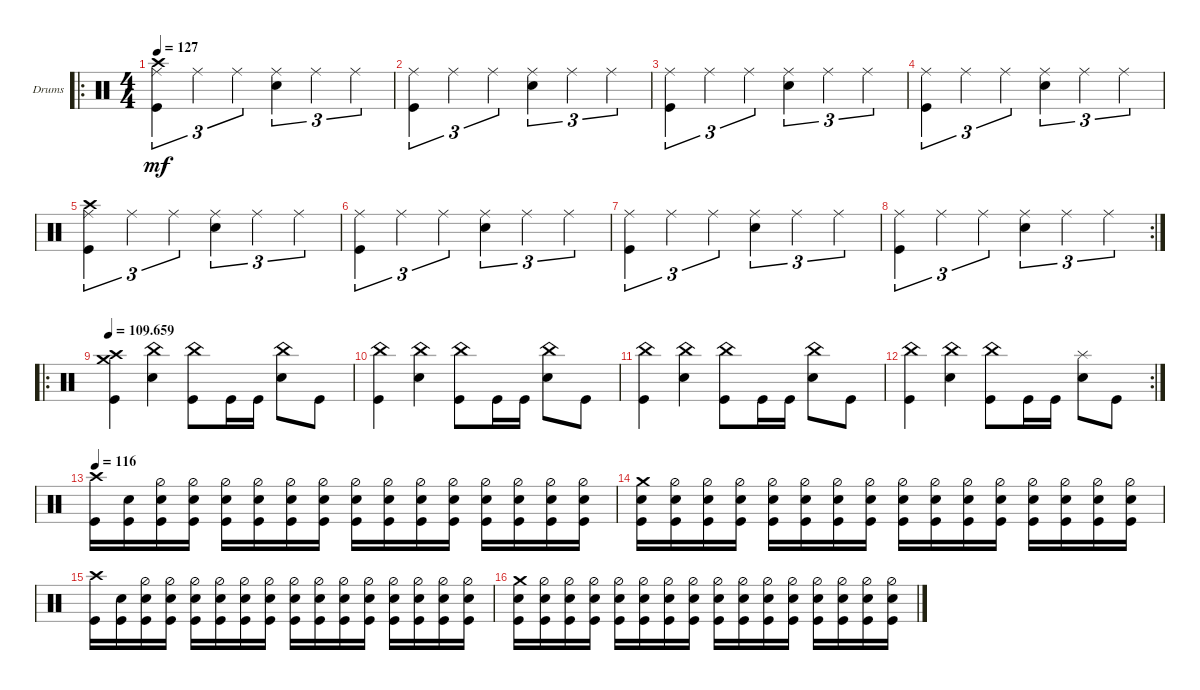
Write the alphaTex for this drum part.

\defaultSystemsLayout 4
\bracketExtendMode groupsimilarinstruments
\firstSystemTrackNameOrientation horizontal
\otherSystemsTrackNameOrientation horizontal
\track ("Incubus" "Drums") {instrument percussion}
\staff {score}
\articulation defaults
\ro
\ts (4 4)
\tempo 127
\clef neutral
\scale
0.408602
\ks c
("Kick (hit)" "Ride (middle)" "Crash high (hit)").4{tu (3 2) dy mf} "Ride (middle)".4{tu (3 2)} "Ride (middle)".4{tu (3 2)} ("Ride (middle)" "Snare (hit) 2").4{tu (3 2)} "Ride (middle)".4{tu (3 2)} "Ride (middle)".4{tu (3 2)} |
\scale
0.322034 ("Ride (middle)" "Kick (hit)").4{tu (3 2)} "Ride (middle)".4{tu (3 2)} "Ride (middle)".4{tu (3 2)} ("Ride (middle)" "Snare (hit) 2").4{tu (3 2)} "Ride (middle)".4{tu (3 2)} "Ride (middle)".4{tu (3 2)} |
\scale
0.322034 ("Kick (hit)" "Ride (middle)").4{tu (3 2)} "Ride (middle)".4{tu (3 2)} "Ride (middle)".4{tu (3 2)} ("Ride (middle)" "Snare (hit) 2").4{tu (3 2)} "Ride (middle)".4{tu (3 2)} "Ride (middle)".4{tu (3 2)} |
\scale
0.355932 ("Ride (middle)" "Kick (hit)").4{tu (3 2)} "Ride (middle)".4{tu (3 2)} "Ride (middle)".4{tu (3 2)} ("Ride (middle)" "Snare (hit) 2").4{tu (3 2)} "Ride (middle)".4{tu (3 2)} "Ride (middle)".4{tu (3 2)} |
("Kick (hit)" "Ride (middle)" "Crash high (hit)").4{tu (3 2)} "Ride (middle)".4{tu (3 2)} "Ride (middle)".4{tu (3 2)} ("Ride (middle)" "Snare (hit) 2").4{tu (3 2)} "Ride (middle)".4{tu (3 2)} "Ride (middle)".4{tu (3 2)} |
("Ride (middle)" "Kick (hit)").4{tu (3 2)} "Ride (middle)".4{tu (3 2)} "Ride (middle)".4{tu (3 2)} ("Ride (middle)" "Snare (hit) 2").4{tu (3 2)} "Ride (middle)".4{tu (3 2)} "Ride (middle)".4{tu (3 2)} |
("Kick (hit)" "Ride (middle)").4{tu (3 2)} "Ride (middle)".4{tu (3 2)} "Ride (middle)".4{tu (3 2)} ("Ride (middle)" "Snare (hit) 2").4{tu (3 2)} "Ride (middle)".4{tu (3 2)} "Ride (middle)".4{tu (3 2)} |
\rc 2
("Ride (middle)" "Kick (hit)").4{tu (3 2)} "Ride (middle)".4{tu (3 2)} "Ride (middle)".4{tu (3 2)} ("Ride (middle)" "Snare (hit) 2").4{tu (3 2)} "Ride (middle)".4{tu (3 2)} "Ride (middle)".4{tu (3 2)} |
\ro
\tempo
109.659
\scale
0.377049 ("Kick (hit)" "Crash medium (hit)" "Crash high (hit)").4 ("China (hit)" "Snare (hit) 2").4 ("China (hit)" "Kick (hit)").8 "Kick (hit)".16 "Kick (hit)".16 ("Snare (hit) 2" "China (hit)").8 "Kick (hit)".8 |
\scale
0.311475 ("Kick (hit)" "China (hit)").4 ("China (hit)" "Snare (hit) 2").4 ("China (hit)" "Kick (hit)").8 "Kick (hit)".16 "Kick (hit)".16 ("Snare (hit) 2" "China (hit)").8 "Kick (hit)".8 |
\scale
0.311475 ("Kick (hit)" "China (hit)").4 ("China (hit)" "Snare (hit) 2").4 ("China (hit)" "Kick (hit)").8 "Kick (hit)".16 "Kick (hit)".16 ("Snare (hit) 2" "China (hit)").8 "Kick (hit)".8 |
\rc 2
\scale
0.355932 ("Kick (hit)" "China (hit)").4 ("China (hit)" "Snare (hit) 2").4 ("China (hit)" "Kick (hit)").8 "Kick (hit)".16 "Kick (hit)".16 ("Snare (hit) 2" "Splash (hit)").8 "Kick (hit)".8 |
\tempo 116
\scale
0.322034 ("Crash high (hit)" "Kick (hit)").16 ("Kick (hit)" "Snare (hit) 2").16 ("Kick (hit)" "Snare (hit) 2" "Hi-Hat (half)").16 ("Kick (hit)" "Snare (hit) 2" "Hi-Hat (half)").16 ("Kick (hit)" "Snare (hit) 2" "Hi-Hat (half)").16 ("Kick (hit)" "Snare (hit) 2" "Hi-Hat (half)").16 ("Kick (hit)" "Snare (hit) 2" "Hi-Hat (half)").16 ("Kick (hit)" "Snare (hit) 2" "Hi-Hat (half)").16 ("Kick (hit)" "Snare (hit) 2" "Hi-Hat (half)").16 ("Kick (hit)" "Snare (hit) 2" "Hi-Hat (half)").16 ("Kick (hit)" "Snare (hit) 2" "Hi-Hat (half)").16 ("Kick (hit)" "Snare (hit) 2" "Hi-Hat (half)").16 ("Kick (hit)" "Snare (hit) 2" "Hi-Hat (half)").16 ("Kick (hit)" "Snare (hit) 2" "Hi-Hat (half)").16 ("Kick (hit)" "Snare (hit) 2" "Hi-Hat (half)").16 ("Kick (hit)" "Snare (hit) 2" "Hi-Hat (half)").16 |
\scale
0.322034 ("Kick (hit)" "Snare (hit) 2" "Crash medium (hit)").16 ("Kick (hit)" "Snare (hit) 2" "Hi-Hat (half)").16 ("Kick (hit)" "Snare (hit) 2" "Hi-Hat (half)").16 ("Kick (hit)" "Snare (hit) 2" "Hi-Hat (half)").16 ("Kick (hit)" "Snare (hit) 2" "Hi-Hat (half)").16 ("Kick (hit)" "Snare (hit) 2" "Hi-Hat (half)").16 ("Kick (hit)" "Snare (hit) 2" "Hi-Hat (half)").16 ("Kick (hit)" "Snare (hit) 2" "Hi-Hat (half)").16 ("Kick (hit)" "Snare (hit) 2" "Hi-Hat (half)").16 ("Kick (hit)" "Snare (hit) 2" "Hi-Hat (half)").16 ("Kick (hit)" "Snare (hit) 2" "Hi-Hat (half)").16 ("Kick (hit)" "Snare (hit) 2" "Hi-Hat (half)").16 ("Kick (hit)" "Snare (hit) 2" "Hi-Hat (half)").16 ("Kick (hit)" "Snare (hit) 2" "Hi-Hat (half)").16 ("Kick (hit)" "Snare (hit) 2" "Hi-Hat (half)").16 ("Kick (hit)" "Snare (hit) 2" "Hi-Hat (half)").16 |
\scale
0.311475 ("Crash high (hit)" "Kick (hit)").16 ("Kick (hit)" "Snare (hit) 2").16 ("Kick (hit)" "Snare (hit) 2" "Hi-Hat (half)").16 ("Kick (hit)" "Snare (hit) 2" "Hi-Hat (half)").16 ("Kick (hit)" "Snare (hit) 2" "Hi-Hat (half)").16 ("Kick (hit)" "Snare (hit) 2" "Hi-Hat (half)").16 ("Kick (hit)" "Snare (hit) 2" "Hi-Hat (half)").16 ("Kick (hit)" "Snare (hit) 2" "Hi-Hat (half)").16 ("Kick (hit)" "Snare (hit) 2" "Hi-Hat (half)").16 ("Kick (hit)" "Snare (hit) 2" "Hi-Hat (half)").16 ("Kick (hit)" "Snare (hit) 2" "Hi-Hat (half)").16 ("Kick (hit)" "Snare (hit) 2" "Hi-Hat (half)").16 ("Kick (hit)" "Snare (hit) 2" "Hi-Hat (half)").16 ("Kick (hit)" "Snare (hit) 2" "Hi-Hat (half)").16 ("Kick (hit)" "Snare (hit) 2" "Hi-Hat (half)").16 ("Kick (hit)" "Snare (hit) 2" "Hi-Hat (half)").16 |
\scale
0.311475 ("Kick (hit)" "Snare (hit) 2" "Crash medium (hit)").16 ("Kick (hit)" "Snare (hit) 2" "Hi-Hat (half)").16 ("Kick (hit)" "Snare (hit) 2" "Hi-Hat (half)").16 ("Kick (hit)" "Snare (hit) 2" "Hi-Hat (half)").16 ("Kick (hit)" "Snare (hit) 2" "Hi-Hat (half)").16 ("Kick (hit)" "Snare (hit) 2" "Hi-Hat (half)").16 ("Kick (hit)" "Snare (hit) 2" "Hi-Hat (half)").16 ("Kick (hit)" "Snare (hit) 2" "Hi-Hat (half)").16 ("Kick (hit)" "Snare (hit) 2" "Hi-Hat (half)").16 ("Kick (hit)" "Snare (hit) 2" "Hi-Hat (half)").16 ("Kick (hit)" "Snare (hit) 2" "Hi-Hat (half)").16 ("Kick (hit)" "Snare (hit) 2" "Hi-Hat (half)").16 ("Kick (hit)" "Snare (hit) 2" "Hi-Hat (half)").16 ("Kick (hit)" "Snare (hit) 2" "Hi-Hat (half)").16 ("Kick (hit)" "Snare (hit) 2" "Hi-Hat (half)").16 ("Kick (hit)" "Snare (hit) 2" "Hi-Hat (half)").16
